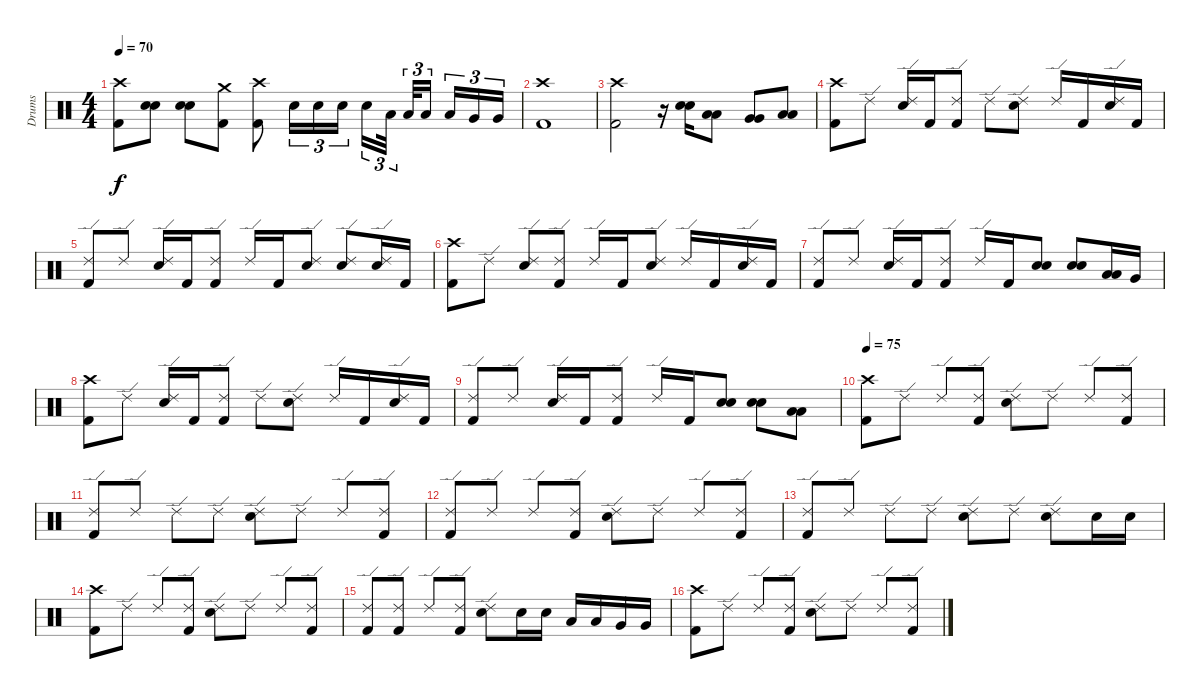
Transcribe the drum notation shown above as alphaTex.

\track ("Drums" "Drums") {instrument percussion}
\staff {score}
\articulation defaults
\ts (4 4)
\tempo 70
\clef neutral
\ks c
("Crash high (hit)" "Kick (hit) 2").8{dy f} ("Electric Snare (hit)" "Electric Snare (hit)").8{bu 60} ("Electric Snare (hit)" "Electric Snare (hit)").8{bu 60} ("Crash medium (hit)" "Kick (hit) 2").8 ("Crash high (hit)" "Kick (hit) 2").8 "Electric Snare (hit)".16{tu (3 2)} "Electric Snare (hit)".16{tu (3 2)} "Electric Snare (hit)".16{tu (3 2)} "Electric Snare (hit)".16{tu (3 2)} "Low Tom (hit)".32{tu (3 2)} "Low Tom (hit)".32{tu (3 2)} "Low Tom (hit)".16{tu (3 2)} "Low Tom (hit)".16{tu (3 2)} "Very Low Tom (hit)".16{tu (3 2)} "Very Low Tom (hit)".16{tu (3 2)} |
("Crash high (hit)" "Kick (hit) 2").1 |
("Crash high (hit)" "Kick (hit) 2").2 r.16 ("Electric Snare (hit)" "Electric Snare (hit)").16{bu 60} ("Low Tom (hit)" "Low Tom (hit)").8{bu 60} ("Very Low Tom (hit)" "Very Low Tom (hit)").8{bu 60} ("Low Floor Tom (hit)" "Low Floor Tom (hit)").8{bu 60} |
("Crash high (hit)" "Kick (hit) 2").8 "Ride (edge) 2".8 ("Ride (edge) 2" "Electric Snare (hit)").16 "Kick (hit) 2".16 ("Ride (edge) 2" "Kick (hit) 2").8 "Ride (edge) 2".8 ("Ride (edge) 2" "Electric Snare (hit)").8 "Ride (edge) 2".16 "Kick (hit) 2".16 ("Ride (edge) 2" "Electric Snare (hit)").16 "Kick (hit) 2".16 |
("Ride (edge) 2" "Kick (hit) 2").8 "Ride (edge) 2".8 ("Ride (edge) 2" "Electric Snare (hit)").16 "Kick (hit) 2".16 ("Ride (edge) 2" "Kick (hit) 2").8 "Ride (edge) 2".16 "Kick (hit) 2".16 ("Ride (edge) 2" "Electric Snare (hit)").8 ("Ride (edge) 2" "Electric Snare (hit)").8 ("Ride (edge) 2" "Electric Snare (hit)").16 "Kick (hit) 2".16 |
("Crash high (hit)" "Kick (hit) 2").8 "Ride (edge) 2".8 ("Ride (edge) 2" "Electric Snare (hit)").8 ("Ride (edge) 2" "Kick (hit) 2").8 "Ride (edge) 2".16 "Kick (hit) 2".16 ("Ride (edge) 2" "Electric Snare (hit)").8 "Ride (edge) 2".16 "Kick (hit) 2".16 ("Ride (edge) 2" "Electric Snare (hit)").16 "Kick (hit) 2".16 |
("Ride (edge) 2" "Kick (hit) 2").8 "Ride (edge) 2".8 ("Ride (edge) 2" "Electric Snare (hit)").16 "Kick (hit) 2".16 ("Ride (edge) 2" "Kick (hit) 2").8 "Ride (edge) 2".16 "Kick (hit) 2".16 ("Electric Snare (hit)" "Electric Snare (hit)").8{bu 60} ("Electric Snare (hit)" "Electric Snare (hit)").8{bu 60} ("Low Tom (hit)" "Low Tom (hit)").16{bu 60} "Very Low Tom (hit)".16 |
("Crash high (hit)" "Kick (hit) 2").8 "Ride (edge) 2".8 ("Ride (edge) 2" "Electric Snare (hit)").16 "Kick (hit) 2".16 ("Ride (edge) 2" "Kick (hit) 2").8 "Ride (edge) 2".8 ("Ride (edge) 2" "Electric Snare (hit)").8 "Ride (edge) 2".16 "Kick (hit) 2".16 ("Ride (edge) 2" "Electric Snare (hit)").16 "Kick (hit) 2".16 |
("Ride (edge) 2" "Kick (hit) 2").8 "Ride (edge) 2".8 ("Ride (edge) 2" "Electric Snare (hit)").16 "Kick (hit) 2".16 ("Ride (edge) 2" "Kick (hit) 2").8 "Ride (edge) 2".16 "Kick (hit) 2".16 ("Electric Snare (hit)" "Electric Snare (hit)").8{bu 60} ("Electric Snare (hit)" "Electric Snare (hit)").8{bu 60} ("Low Tom (hit)" "Low Tom (hit)").8{bu 60} |
\tempo 75
("Crash high (hit)" "Kick (hit) 2").8 "Ride (edge) 2".8 "Ride (edge) 2".8 ("Ride (edge) 2" "Kick (hit) 2").8 ("Ride (edge) 2" "Electric Snare (hit)").8 "Ride (edge) 2".8 "Ride (edge) 2".8 ("Ride (edge) 2" "Kick (hit) 2").8 |
("Ride (edge) 2" "Kick (hit) 2").8 "Ride (edge) 2".8 "Ride (edge) 2".8 "Ride (edge) 2".8 ("Ride (edge) 2" "Electric Snare (hit)").8 "Ride (edge) 2".8 "Ride (edge) 2".8 ("Ride (edge) 2" "Kick (hit) 2").8 |
("Ride (edge) 2" "Kick (hit) 2").8 "Ride (edge) 2".8 "Ride (edge) 2".8 ("Ride (edge) 2" "Kick (hit) 2").8 ("Ride (edge) 2" "Electric Snare (hit)").8 "Ride (edge) 2".8 "Ride (edge) 2".8 ("Ride (edge) 2" "Kick (hit) 2").8 |
("Ride (edge) 2" "Kick (hit) 2").8 "Ride (edge) 2".8 "Ride (edge) 2".8 "Ride (edge) 2".8 ("Ride (edge) 2" "Electric Snare (hit)").8 "Ride (edge) 2".8 ("Ride (edge) 2" "Electric Snare (hit)").8 "Electric Snare (hit)".16 "Electric Snare (hit)".16 |
("Crash high (hit)" "Kick (hit) 2").8 "Ride (edge) 2".8 "Ride (edge) 2".8 ("Ride (edge) 2" "Kick (hit) 2").8 ("Ride (edge) 2" "Electric Snare (hit)").8 "Ride (edge) 2".8 "Ride (edge) 2".8 ("Ride (edge) 2" "Kick (hit) 2").8 |
("Ride (edge) 2" "Kick (hit) 2").8 ("Ride (edge) 2" "Kick (hit) 2").8 "Ride (edge) 2".8 ("Ride (edge) 2" "Kick (hit) 2").8 ("Ride (edge) 2" "Electric Snare (hit)").8 "Electric Snare (hit)".16 "Electric Snare (hit)".16 "Low Tom (hit)".16 "Low Tom (hit)".16 "Very Low Tom (hit)".16 "Very Low Tom (hit)".16 |
("Crash high (hit)" "Kick (hit) 2").8 "Ride (edge) 2".8 "Ride (edge) 2".8 ("Ride (edge) 2" "Kick (hit) 2").8 ("Ride (edge) 2" "Electric Snare (hit)").8 "Ride (edge) 2".8 "Ride (edge) 2".8 ("Ride (edge) 2" "Kick (hit) 2").8
